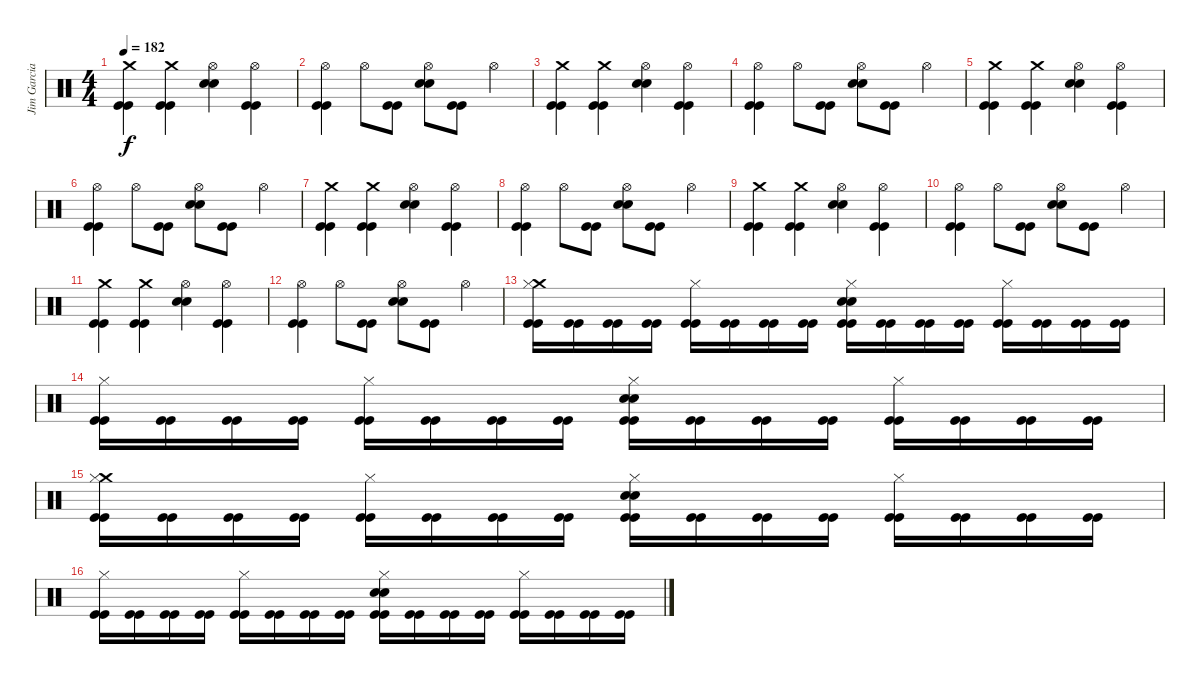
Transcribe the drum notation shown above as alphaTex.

\track ("Jim Garcia" "Jim Garcia") {instrument percussion}
\staff {score}
\articulation defaults
\ts (4 4)
\tempo 182
\clef neutral
\ks c
("Crash medium (hit)" "Kick (hit)" "Kick (hit)").4{dy f} ("Crash medium (hit)" "Kick (hit)" "Kick (hit)").4 ("Snare (hit) 2" "Snare (hit) 2" "Hi-Hat (open)").4 ("Hi-Hat (open)" "Kick (hit)" "Kick (hit)").4 |
("Hi-Hat (open)" "Kick (hit)" "Kick (hit)").4 "Hi-Hat (open)".8 ("Kick (hit)" "Kick (hit)").8 ("Snare (hit) 2" "Snare (hit) 2" "Hi-Hat (open)").8 ("Kick (hit)" "Kick (hit)").8 "Hi-Hat (open)".4 |
("Crash medium (hit)" "Kick (hit)" "Kick (hit)").4 ("Crash medium (hit)" "Kick (hit)" "Kick (hit)").4 ("Snare (hit) 2" "Snare (hit) 2" "Hi-Hat (open)").4 ("Hi-Hat (open)" "Kick (hit)" "Kick (hit)").4 |
("Hi-Hat (open)" "Kick (hit)" "Kick (hit)").4 "Hi-Hat (open)".8 ("Kick (hit)" "Kick (hit)").8 ("Snare (hit) 2" "Snare (hit) 2" "Hi-Hat (open)").8 ("Kick (hit)" "Kick (hit)").8 "Hi-Hat (open)".4 |
("Crash medium (hit)" "Kick (hit)" "Kick (hit)").4 ("Crash medium (hit)" "Kick (hit)" "Kick (hit)").4 ("Snare (hit) 2" "Snare (hit) 2" "Hi-Hat (open)").4 ("Hi-Hat (open)" "Kick (hit)" "Kick (hit)").4 |
("Hi-Hat (open)" "Kick (hit)" "Kick (hit)").4 "Hi-Hat (open)".8 ("Kick (hit)" "Kick (hit)").8 ("Snare (hit) 2" "Snare (hit) 2" "Hi-Hat (open)").8 ("Kick (hit)" "Kick (hit)").8 "Hi-Hat (open)".4 |
("Crash medium (hit)" "Kick (hit)" "Kick (hit)").4 ("Crash medium (hit)" "Kick (hit)" "Kick (hit)").4 ("Snare (hit) 2" "Snare (hit) 2" "Hi-Hat (open)").4 ("Hi-Hat (open)" "Kick (hit)" "Kick (hit)").4 |
("Hi-Hat (open)" "Kick (hit)" "Kick (hit)").4 "Hi-Hat (open)".8 ("Kick (hit)" "Kick (hit)").8 ("Snare (hit) 2" "Snare (hit) 2" "Hi-Hat (open)").8 ("Kick (hit)" "Kick (hit)").8 "Hi-Hat (open)".4 |
("Crash medium (hit)" "Kick (hit)" "Kick (hit)").4 ("Crash medium (hit)" "Kick (hit)" "Kick (hit)").4 ("Snare (hit) 2" "Snare (hit) 2" "Hi-Hat (open)").4 ("Hi-Hat (open)" "Kick (hit)" "Kick (hit)").4 |
("Hi-Hat (open)" "Kick (hit)" "Kick (hit)").4 "Hi-Hat (open)".8 ("Kick (hit)" "Kick (hit)").8 ("Snare (hit) 2" "Snare (hit) 2" "Hi-Hat (open)").8 ("Kick (hit)" "Kick (hit)").8 "Hi-Hat (open)".4 |
("Crash medium (hit)" "Kick (hit)" "Kick (hit)").4 ("Crash medium (hit)" "Kick (hit)" "Kick (hit)").4 ("Snare (hit) 2" "Snare (hit) 2" "Hi-Hat (open)").4 ("Hi-Hat (open)" "Kick (hit)" "Kick (hit)").4 |
("Hi-Hat (open)" "Kick (hit)" "Kick (hit)").4 "Hi-Hat (open)".8 ("Kick (hit)" "Kick (hit)").8 ("Snare (hit) 2" "Snare (hit) 2" "Hi-Hat (open)").8 ("Kick (hit)" "Kick (hit)").8 "Hi-Hat (open)".4 |
("Crash medium (hit)" "Hi-Hat (closed)" "Kick (hit)" "Kick (hit)").16 ("Kick (hit)" "Kick (hit)").16 ("Kick (hit)" "Kick (hit)").16 ("Kick (hit)" "Kick (hit)").16 ("Hi-Hat (closed)" "Kick (hit)" "Kick (hit)").16 ("Kick (hit)" "Kick (hit)").16 ("Kick (hit)" "Kick (hit)").16 ("Kick (hit)" "Kick (hit)").16 ("Snare (hit) 2" "Snare (hit) 2" "Hi-Hat (closed)" "Kick (hit)" "Kick (hit)").16 ("Kick (hit)" "Kick (hit)").16 ("Kick (hit)" "Kick (hit)").16 ("Kick (hit)" "Kick (hit)").16 ("Hi-Hat (closed)" "Kick (hit)" "Kick (hit)").16 ("Kick (hit)" "Kick (hit)").16 ("Kick (hit)" "Kick (hit)").16 ("Kick (hit)" "Kick (hit)").16 |
("Hi-Hat (closed)" "Kick (hit)" "Kick (hit)").16 ("Kick (hit)" "Kick (hit)").16 ("Kick (hit)" "Kick (hit)").16 ("Kick (hit)" "Kick (hit)").16 ("Hi-Hat (closed)" "Kick (hit)" "Kick (hit)").16 ("Kick (hit)" "Kick (hit)").16 ("Kick (hit)" "Kick (hit)").16 ("Kick (hit)" "Kick (hit)").16 ("Snare (hit) 2" "Snare (hit) 2" "Hi-Hat (closed)" "Kick (hit)" "Kick (hit)").16 ("Kick (hit)" "Kick (hit)").16 ("Kick (hit)" "Kick (hit)").16 ("Kick (hit)" "Kick (hit)").16 ("Hi-Hat (closed)" "Kick (hit)" "Kick (hit)").16 ("Kick (hit)" "Kick (hit)").16 ("Kick (hit)" "Kick (hit)").16 ("Kick (hit)" "Kick (hit)").16 |
("Crash medium (hit)" "Hi-Hat (closed)" "Kick (hit)" "Kick (hit)").16 ("Kick (hit)" "Kick (hit)").16 ("Kick (hit)" "Kick (hit)").16 ("Kick (hit)" "Kick (hit)").16 ("Hi-Hat (closed)" "Kick (hit)" "Kick (hit)").16 ("Kick (hit)" "Kick (hit)").16 ("Kick (hit)" "Kick (hit)").16 ("Kick (hit)" "Kick (hit)").16 ("Snare (hit) 2" "Snare (hit) 2" "Hi-Hat (closed)" "Kick (hit)" "Kick (hit)").16 ("Kick (hit)" "Kick (hit)").16 ("Kick (hit)" "Kick (hit)").16 ("Kick (hit)" "Kick (hit)").16 ("Hi-Hat (closed)" "Kick (hit)" "Kick (hit)").16 ("Kick (hit)" "Kick (hit)").16 ("Kick (hit)" "Kick (hit)").16 ("Kick (hit)" "Kick (hit)").16 |
("Hi-Hat (closed)" "Kick (hit)" "Kick (hit)").16 ("Kick (hit)" "Kick (hit)").16 ("Kick (hit)" "Kick (hit)").16 ("Kick (hit)" "Kick (hit)").16 ("Hi-Hat (closed)" "Kick (hit)" "Kick (hit)").16 ("Kick (hit)" "Kick (hit)").16 ("Kick (hit)" "Kick (hit)").16 ("Kick (hit)" "Kick (hit)").16 ("Snare (hit) 2" "Snare (hit) 2" "Hi-Hat (closed)" "Kick (hit)" "Kick (hit)").16 ("Kick (hit)" "Kick (hit)").16 ("Kick (hit)" "Kick (hit)").16 ("Kick (hit)" "Kick (hit)").16 ("Hi-Hat (closed)" "Kick (hit)" "Kick (hit)").16 ("Kick (hit)" "Kick (hit)").16 ("Kick (hit)" "Kick (hit)").16 ("Kick (hit)" "Kick (hit)").16
